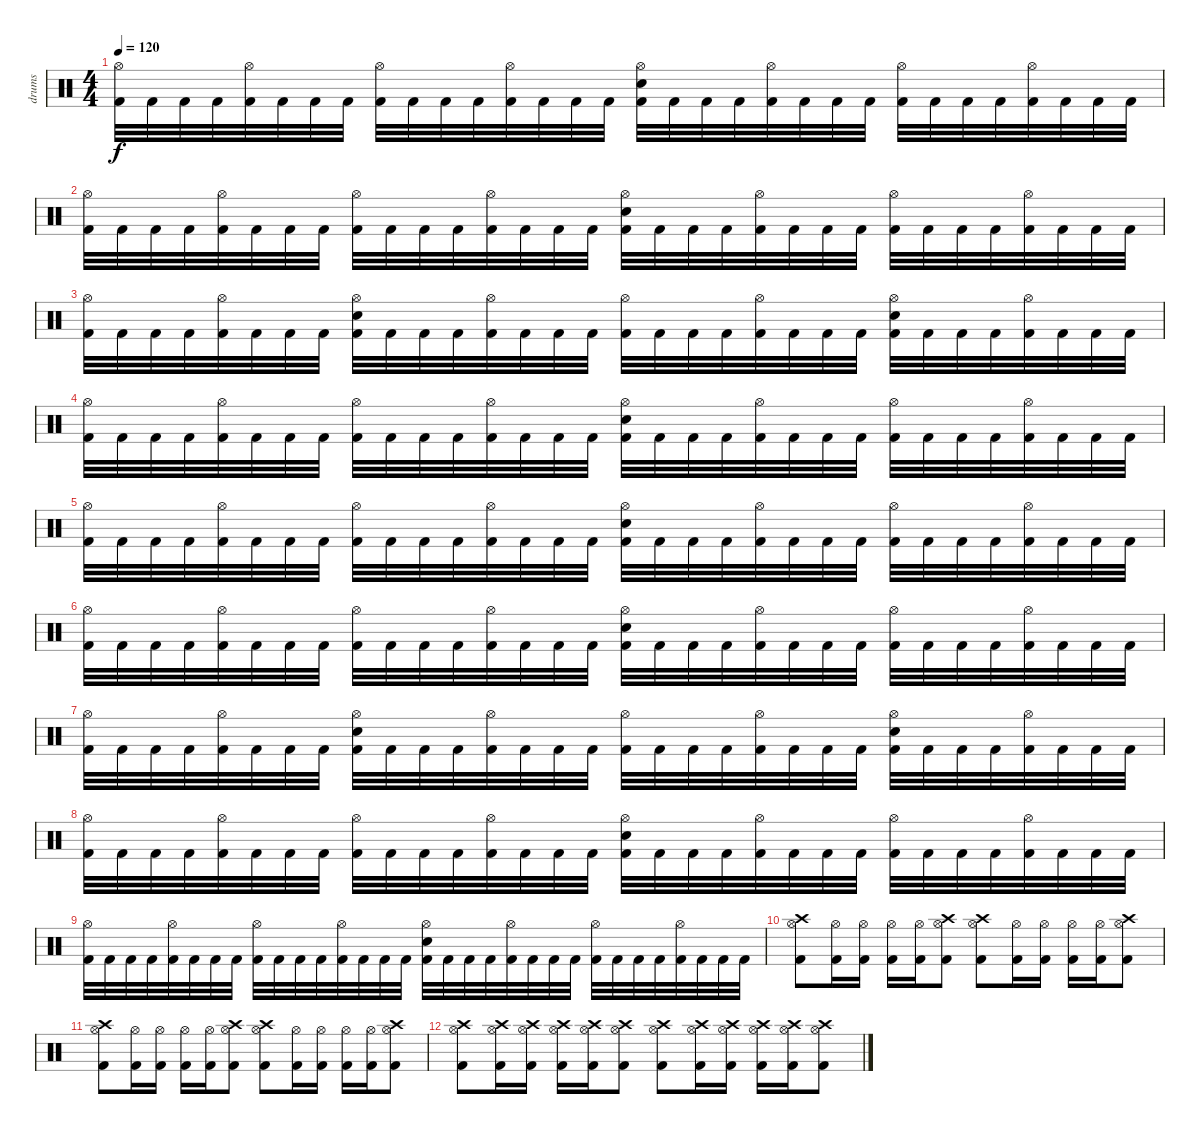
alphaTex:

\track ("drums" "drums") {instrument percussion}
\staff {score}
\articulation defaults
\ts (4 4)
\tempo 120
\clef neutral
\ks c
("Hi-Hat (open)" "Kick (hit) 2").32{dy f} "Kick (hit) 2".32 "Kick (hit) 2".32 "Kick (hit) 2".32 ("Hi-Hat (open)" "Kick (hit) 2").32 "Kick (hit) 2".32 "Kick (hit) 2".32 "Kick (hit) 2".32 ("Hi-Hat (open)" "Kick (hit) 2").32 "Kick (hit) 2".32 "Kick (hit) 2".32 "Kick (hit) 2".32 ("Hi-Hat (open)" "Kick (hit) 2").32 "Kick (hit) 2".32 "Kick (hit) 2".32 "Kick (hit) 2".32 ("Hi-Hat (open)" "Electric Snare (hit)" "Kick (hit) 2").32 "Kick (hit) 2".32 "Kick (hit) 2".32 "Kick (hit) 2".32 ("Hi-Hat (open)" "Kick (hit) 2").32 "Kick (hit) 2".32 "Kick (hit) 2".32 "Kick (hit) 2".32 ("Hi-Hat (open)" "Kick (hit) 2").32 "Kick (hit) 2".32 "Kick (hit) 2".32 "Kick (hit) 2".32 ("Hi-Hat (open)" "Kick (hit) 2").32 "Kick (hit) 2".32 "Kick (hit) 2".32 "Kick (hit) 2".32 |
("Hi-Hat (open)" "Kick (hit) 2").32 "Kick (hit) 2".32 "Kick (hit) 2".32 "Kick (hit) 2".32 ("Hi-Hat (open)" "Kick (hit) 2").32 "Kick (hit) 2".32 "Kick (hit) 2".32 "Kick (hit) 2".32 ("Hi-Hat (open)" "Kick (hit) 2").32 "Kick (hit) 2".32 "Kick (hit) 2".32 "Kick (hit) 2".32 ("Hi-Hat (open)" "Kick (hit) 2").32 "Kick (hit) 2".32 "Kick (hit) 2".32 "Kick (hit) 2".32 ("Hi-Hat (open)" "Electric Snare (hit)" "Kick (hit) 2").32 "Kick (hit) 2".32 "Kick (hit) 2".32 "Kick (hit) 2".32 ("Hi-Hat (open)" "Kick (hit) 2").32 "Kick (hit) 2".32 "Kick (hit) 2".32 "Kick (hit) 2".32 ("Hi-Hat (open)" "Kick (hit) 2").32 "Kick (hit) 2".32 "Kick (hit) 2".32 "Kick (hit) 2".32 ("Hi-Hat (open)" "Kick (hit) 2").32 "Kick (hit) 2".32 "Kick (hit) 2".32 "Kick (hit) 2".32 |
("Hi-Hat (open)" "Kick (hit) 2").32 "Kick (hit) 2".32 "Kick (hit) 2".32 "Kick (hit) 2".32 ("Hi-Hat (open)" "Kick (hit) 2").32 "Kick (hit) 2".32 "Kick (hit) 2".32 "Kick (hit) 2".32 ("Hi-Hat (open)" "Electric Snare (hit)" "Kick (hit) 2").32 "Kick (hit) 2".32 "Kick (hit) 2".32 "Kick (hit) 2".32 ("Hi-Hat (open)" "Kick (hit) 2").32 "Kick (hit) 2".32 "Kick (hit) 2".32 "Kick (hit) 2".32 ("Hi-Hat (open)" "Kick (hit) 2").32 "Kick (hit) 2".32 "Kick (hit) 2".32 "Kick (hit) 2".32 ("Hi-Hat (open)" "Kick (hit) 2").32 "Kick (hit) 2".32 "Kick (hit) 2".32 "Kick (hit) 2".32 ("Hi-Hat (open)" "Electric Snare (hit)" "Kick (hit) 2").32 "Kick (hit) 2".32 "Kick (hit) 2".32 "Kick (hit) 2".32 ("Hi-Hat (open)" "Kick (hit) 2").32 "Kick (hit) 2".32 "Kick (hit) 2".32 "Kick (hit) 2".32 |
("Hi-Hat (open)" "Kick (hit) 2").32 "Kick (hit) 2".32 "Kick (hit) 2".32 "Kick (hit) 2".32 ("Hi-Hat (open)" "Kick (hit) 2").32 "Kick (hit) 2".32 "Kick (hit) 2".32 "Kick (hit) 2".32 ("Hi-Hat (open)" "Kick (hit) 2").32 "Kick (hit) 2".32 "Kick (hit) 2".32 "Kick (hit) 2".32 ("Hi-Hat (open)" "Kick (hit) 2").32 "Kick (hit) 2".32 "Kick (hit) 2".32 "Kick (hit) 2".32 ("Hi-Hat (open)" "Electric Snare (hit)" "Kick (hit) 2").32 "Kick (hit) 2".32 "Kick (hit) 2".32 "Kick (hit) 2".32 ("Hi-Hat (open)" "Kick (hit) 2").32 "Kick (hit) 2".32 "Kick (hit) 2".32 "Kick (hit) 2".32 ("Hi-Hat (open)" "Kick (hit) 2").32 "Kick (hit) 2".32 "Kick (hit) 2".32 "Kick (hit) 2".32 ("Hi-Hat (open)" "Kick (hit) 2").32 "Kick (hit) 2".32 "Kick (hit) 2".32 "Kick (hit) 2".32 |
("Hi-Hat (open)" "Kick (hit) 2").32 "Kick (hit) 2".32 "Kick (hit) 2".32 "Kick (hit) 2".32 ("Hi-Hat (open)" "Kick (hit) 2").32 "Kick (hit) 2".32 "Kick (hit) 2".32 "Kick (hit) 2".32 ("Hi-Hat (open)" "Kick (hit) 2").32 "Kick (hit) 2".32 "Kick (hit) 2".32 "Kick (hit) 2".32 ("Hi-Hat (open)" "Kick (hit) 2").32 "Kick (hit) 2".32 "Kick (hit) 2".32 "Kick (hit) 2".32 ("Hi-Hat (open)" "Electric Snare (hit)" "Kick (hit) 2").32 "Kick (hit) 2".32 "Kick (hit) 2".32 "Kick (hit) 2".32 ("Hi-Hat (open)" "Kick (hit) 2").32 "Kick (hit) 2".32 "Kick (hit) 2".32 "Kick (hit) 2".32 ("Hi-Hat (open)" "Kick (hit) 2").32 "Kick (hit) 2".32 "Kick (hit) 2".32 "Kick (hit) 2".32 ("Hi-Hat (open)" "Kick (hit) 2").32 "Kick (hit) 2".32 "Kick (hit) 2".32 "Kick (hit) 2".32 |
("Hi-Hat (open)" "Kick (hit) 2").32 "Kick (hit) 2".32 "Kick (hit) 2".32 "Kick (hit) 2".32 ("Hi-Hat (open)" "Kick (hit) 2").32 "Kick (hit) 2".32 "Kick (hit) 2".32 "Kick (hit) 2".32 ("Hi-Hat (open)" "Kick (hit) 2").32 "Kick (hit) 2".32 "Kick (hit) 2".32 "Kick (hit) 2".32 ("Hi-Hat (open)" "Kick (hit) 2").32 "Kick (hit) 2".32 "Kick (hit) 2".32 "Kick (hit) 2".32 ("Hi-Hat (open)" "Electric Snare (hit)" "Kick (hit) 2").32 "Kick (hit) 2".32 "Kick (hit) 2".32 "Kick (hit) 2".32 ("Hi-Hat (open)" "Kick (hit) 2").32 "Kick (hit) 2".32 "Kick (hit) 2".32 "Kick (hit) 2".32 ("Hi-Hat (open)" "Kick (hit) 2").32 "Kick (hit) 2".32 "Kick (hit) 2".32 "Kick (hit) 2".32 ("Hi-Hat (open)" "Kick (hit) 2").32 "Kick (hit) 2".32 "Kick (hit) 2".32 "Kick (hit) 2".32 |
("Hi-Hat (open)" "Kick (hit) 2").32 "Kick (hit) 2".32 "Kick (hit) 2".32 "Kick (hit) 2".32 ("Hi-Hat (open)" "Kick (hit) 2").32 "Kick (hit) 2".32 "Kick (hit) 2".32 "Kick (hit) 2".32 ("Hi-Hat (open)" "Electric Snare (hit)" "Kick (hit) 2").32 "Kick (hit) 2".32 "Kick (hit) 2".32 "Kick (hit) 2".32 ("Hi-Hat (open)" "Kick (hit) 2").32 "Kick (hit) 2".32 "Kick (hit) 2".32 "Kick (hit) 2".32 ("Hi-Hat (open)" "Kick (hit) 2").32 "Kick (hit) 2".32 "Kick (hit) 2".32 "Kick (hit) 2".32 ("Hi-Hat (open)" "Kick (hit) 2").32 "Kick (hit) 2".32 "Kick (hit) 2".32 "Kick (hit) 2".32 ("Hi-Hat (open)" "Electric Snare (hit)" "Kick (hit) 2").32 "Kick (hit) 2".32 "Kick (hit) 2".32 "Kick (hit) 2".32 ("Hi-Hat (open)" "Kick (hit) 2").32 "Kick (hit) 2".32 "Kick (hit) 2".32 "Kick (hit) 2".32 |
("Hi-Hat (open)" "Kick (hit) 2").32 "Kick (hit) 2".32 "Kick (hit) 2".32 "Kick (hit) 2".32 ("Hi-Hat (open)" "Kick (hit) 2").32 "Kick (hit) 2".32 "Kick (hit) 2".32 "Kick (hit) 2".32 ("Hi-Hat (open)" "Kick (hit) 2").32 "Kick (hit) 2".32 "Kick (hit) 2".32 "Kick (hit) 2".32 ("Hi-Hat (open)" "Kick (hit) 2").32 "Kick (hit) 2".32 "Kick (hit) 2".32 "Kick (hit) 2".32 ("Hi-Hat (open)" "Electric Snare (hit)" "Kick (hit) 2").32 "Kick (hit) 2".32 "Kick (hit) 2".32 "Kick (hit) 2".32 ("Hi-Hat (open)" "Kick (hit) 2").32 "Kick (hit) 2".32 "Kick (hit) 2".32 "Kick (hit) 2".32 ("Hi-Hat (open)" "Kick (hit) 2").32 "Kick (hit) 2".32 "Kick (hit) 2".32 "Kick (hit) 2".32 ("Hi-Hat (open)" "Kick (hit) 2").32 "Kick (hit) 2".32 "Kick (hit) 2".32 "Kick (hit) 2".32 |
("Hi-Hat (open)" "Kick (hit) 2").32 "Kick (hit) 2".32 "Kick (hit) 2".32 "Kick (hit) 2".32 ("Hi-Hat (open)" "Kick (hit) 2").32 "Kick (hit) 2".32 "Kick (hit) 2".32 "Kick (hit) 2".32 ("Hi-Hat (open)" "Kick (hit) 2").32 "Kick (hit) 2".32 "Kick (hit) 2".32 "Kick (hit) 2".32 ("Hi-Hat (open)" "Kick (hit) 2").32 "Kick (hit) 2".32 "Kick (hit) 2".32 "Kick (hit) 2".32 ("Hi-Hat (open)" "Electric Snare (hit)" "Kick (hit) 2").32 "Kick (hit) 2".32 "Kick (hit) 2".32 "Kick (hit) 2".32 ("Hi-Hat (open)" "Kick (hit) 2").32 "Kick (hit) 2".32 "Kick (hit) 2".32 "Kick (hit) 2".32 ("Hi-Hat (open)" "Kick (hit) 2").32 "Kick (hit) 2".32 "Kick (hit) 2".32 "Kick (hit) 2".32 ("Hi-Hat (open)" "Kick (hit) 2").32 "Kick (hit) 2".32 "Kick (hit) 2".32 "Kick (hit) 2".32 |
("Hi-Hat (open)" "Crash high (hit)" "Kick (hit) 2").8 ("Hi-Hat (open)" "Kick (hit) 2").16 ("Hi-Hat (open)" "Kick (hit) 2").16 ("Hi-Hat (open)" "Kick (hit) 2").16 ("Hi-Hat (open)" "Kick (hit) 2").16 ("Hi-Hat (open)" "Crash high (hit)" "Kick (hit) 2").8 ("Hi-Hat (open)" "Crash high (hit)" "Kick (hit) 2").8 ("Hi-Hat (open)" "Kick (hit) 2").16 ("Hi-Hat (open)" "Kick (hit) 2").16 ("Hi-Hat (open)" "Kick (hit) 2").16 ("Hi-Hat (open)" "Kick (hit) 2").16 ("Hi-Hat (open)" "Crash high (hit)" "Kick (hit) 2").8 |
("Hi-Hat (open)" "Crash high (hit)" "Kick (hit) 2").8 ("Hi-Hat (open)" "Kick (hit) 2").16 ("Hi-Hat (open)" "Kick (hit) 2").16 ("Hi-Hat (open)" "Kick (hit) 2").16 ("Hi-Hat (open)" "Kick (hit) 2").16 ("Hi-Hat (open)" "Crash high (hit)" "Kick (hit) 2").8 ("Hi-Hat (open)" "Crash high (hit)" "Kick (hit) 2").8 ("Hi-Hat (open)" "Kick (hit) 2").16 ("Hi-Hat (open)" "Kick (hit) 2").16 ("Hi-Hat (open)" "Kick (hit) 2").16 ("Hi-Hat (open)" "Kick (hit) 2").16 ("Hi-Hat (open)" "Crash high (hit)" "Kick (hit) 2").8 |
("Hi-Hat (open)" "Crash high (hit)" "Kick (hit) 2").8 ("Hi-Hat (open)" "Crash high (hit)" "Kick (hit) 2").16 ("Hi-Hat (open)" "Crash high (hit)" "Kick (hit) 2").16 ("Hi-Hat (open)" "Crash high (hit)" "Kick (hit) 2").16 ("Hi-Hat (open)" "Crash high (hit)" "Kick (hit) 2").16 ("Hi-Hat (open)" "Crash high (hit)" "Kick (hit) 2").8 ("Hi-Hat (open)" "Crash high (hit)" "Kick (hit) 2").8 ("Hi-Hat (open)" "Crash high (hit)" "Kick (hit) 2").16 ("Hi-Hat (open)" "Crash high (hit)" "Kick (hit) 2").16 ("Hi-Hat (open)" "Crash high (hit)" "Kick (hit) 2").16 ("Hi-Hat (open)" "Crash high (hit)" "Kick (hit) 2").16 ("Hi-Hat (open)" "Crash high (hit)" "Kick (hit) 2").8
